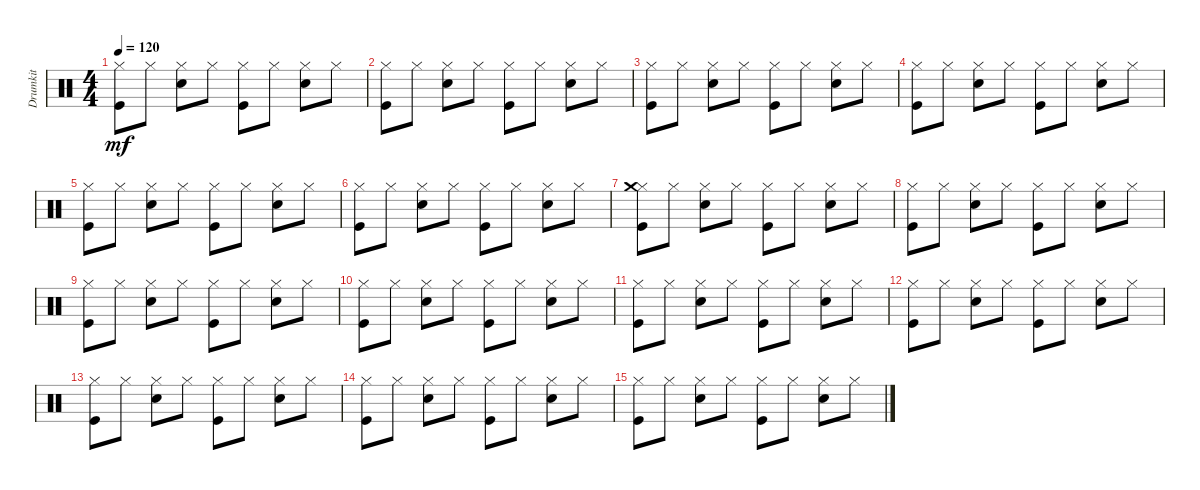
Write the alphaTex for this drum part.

\track ("Drumkit" "Drumkit") {instrument percussion}
\staff {score}
\articulation defaults
\ts (4 4)
\tempo 120
\clef neutral
\ks c
("Hi-Hat (closed)" "Kick (hit)").8{dy mf} "Hi-Hat (closed)".8 ("Hi-Hat (closed)" "Snare (hit) 2").8 "Hi-Hat (closed)".8 ("Hi-Hat (closed)" "Kick (hit)").8 "Hi-Hat (closed)".8 ("Hi-Hat (closed)" "Snare (hit) 2").8 "Hi-Hat (closed)".8 |
("Hi-Hat (closed)" "Kick (hit)").8 "Hi-Hat (closed)".8 ("Hi-Hat (closed)" "Snare (hit) 2").8 "Hi-Hat (closed)".8 ("Hi-Hat (closed)" "Kick (hit)").8 "Hi-Hat (closed)".8 ("Hi-Hat (closed)" "Snare (hit) 2").8 "Hi-Hat (closed)".8 |
("Hi-Hat (closed)" "Kick (hit)").8 "Hi-Hat (closed)".8 ("Hi-Hat (closed)" "Snare (hit) 2").8 "Hi-Hat (closed)".8 ("Hi-Hat (closed)" "Kick (hit)").8 "Hi-Hat (closed)".8 ("Hi-Hat (closed)" "Snare (hit) 2").8 "Hi-Hat (closed)".8 |
("Hi-Hat (closed)" "Kick (hit)").8 "Hi-Hat (closed)".8 ("Hi-Hat (closed)" "Snare (hit) 2").8 "Hi-Hat (closed)".8 ("Hi-Hat (closed)" "Kick (hit)").8 "Hi-Hat (closed)".8 ("Hi-Hat (closed)" "Snare (hit) 2").8 "Hi-Hat (closed)".8 |
("Hi-Hat (closed)" "Kick (hit)").8 "Hi-Hat (closed)".8 ("Hi-Hat (closed)" "Snare (hit) 2").8 "Hi-Hat (closed)".8 ("Hi-Hat (closed)" "Kick (hit)").8 "Hi-Hat (closed)".8 ("Hi-Hat (closed)" "Snare (hit) 2").8 "Hi-Hat (closed)".8 |
("Hi-Hat (closed)" "Kick (hit)").8 "Hi-Hat (closed)".8 ("Hi-Hat (closed)" "Snare (hit) 2").8 "Hi-Hat (closed)".8 ("Hi-Hat (closed)" "Kick (hit)").8 "Hi-Hat (closed)".8 ("Hi-Hat (closed)" "Snare (hit) 2").8 "Hi-Hat (closed)".8 |
("Hi-Hat (closed)" "Kick (hit)" "Crash medium (hit)").8 "Hi-Hat (closed)".8 ("Hi-Hat (closed)" "Snare (hit) 2").8 "Hi-Hat (closed)".8 ("Hi-Hat (closed)" "Kick (hit)").8 "Hi-Hat (closed)".8 ("Hi-Hat (closed)" "Snare (hit) 2").8 "Hi-Hat (closed)".8 |
("Hi-Hat (closed)" "Kick (hit)").8 "Hi-Hat (closed)".8 ("Hi-Hat (closed)" "Snare (hit) 2").8 "Hi-Hat (closed)".8 ("Hi-Hat (closed)" "Kick (hit)").8 "Hi-Hat (closed)".8 ("Hi-Hat (closed)" "Snare (hit) 2").8 "Hi-Hat (closed)".8 |
("Hi-Hat (closed)" "Kick (hit)").8 "Hi-Hat (closed)".8 ("Hi-Hat (closed)" "Snare (hit) 2").8 "Hi-Hat (closed)".8 ("Hi-Hat (closed)" "Kick (hit)").8 "Hi-Hat (closed)".8 ("Hi-Hat (closed)" "Snare (hit) 2").8 "Hi-Hat (closed)".8 |
("Hi-Hat (closed)" "Kick (hit)").8 "Hi-Hat (closed)".8 ("Hi-Hat (closed)" "Snare (hit) 2").8 "Hi-Hat (closed)".8 ("Hi-Hat (closed)" "Kick (hit)").8 "Hi-Hat (closed)".8 ("Hi-Hat (closed)" "Snare (hit) 2").8 "Hi-Hat (closed)".8 |
("Hi-Hat (closed)" "Kick (hit)").8 "Hi-Hat (closed)".8 ("Hi-Hat (closed)" "Snare (hit) 2").8 "Hi-Hat (closed)".8 ("Hi-Hat (closed)" "Kick (hit)").8 "Hi-Hat (closed)".8 ("Hi-Hat (closed)" "Snare (hit) 2").8 "Hi-Hat (closed)".8 |
("Hi-Hat (closed)" "Kick (hit)").8 "Hi-Hat (closed)".8 ("Hi-Hat (closed)" "Snare (hit) 2").8 "Hi-Hat (closed)".8 ("Hi-Hat (closed)" "Kick (hit)").8 "Hi-Hat (closed)".8 ("Hi-Hat (closed)" "Snare (hit) 2").8 "Hi-Hat (closed)".8 |
("Hi-Hat (closed)" "Kick (hit)").8 "Hi-Hat (closed)".8 ("Hi-Hat (closed)" "Snare (hit) 2").8 "Hi-Hat (closed)".8 ("Hi-Hat (closed)" "Kick (hit)").8 "Hi-Hat (closed)".8 ("Hi-Hat (closed)" "Snare (hit) 2").8 "Hi-Hat (closed)".8 |
("Hi-Hat (closed)" "Kick (hit)").8 "Hi-Hat (closed)".8 ("Hi-Hat (closed)" "Snare (hit) 2").8 "Hi-Hat (closed)".8 ("Hi-Hat (closed)" "Kick (hit)").8 "Hi-Hat (closed)".8 ("Hi-Hat (closed)" "Snare (hit) 2").8 "Hi-Hat (closed)".8 |
("Hi-Hat (closed)" "Kick (hit)").8 "Hi-Hat (closed)".8 ("Hi-Hat (closed)" "Snare (hit) 2").8 "Hi-Hat (closed)".8 ("Hi-Hat (closed)" "Kick (hit)").8 "Hi-Hat (closed)".8 ("Hi-Hat (closed)" "Snare (hit) 2").8 "Hi-Hat (closed)".8
